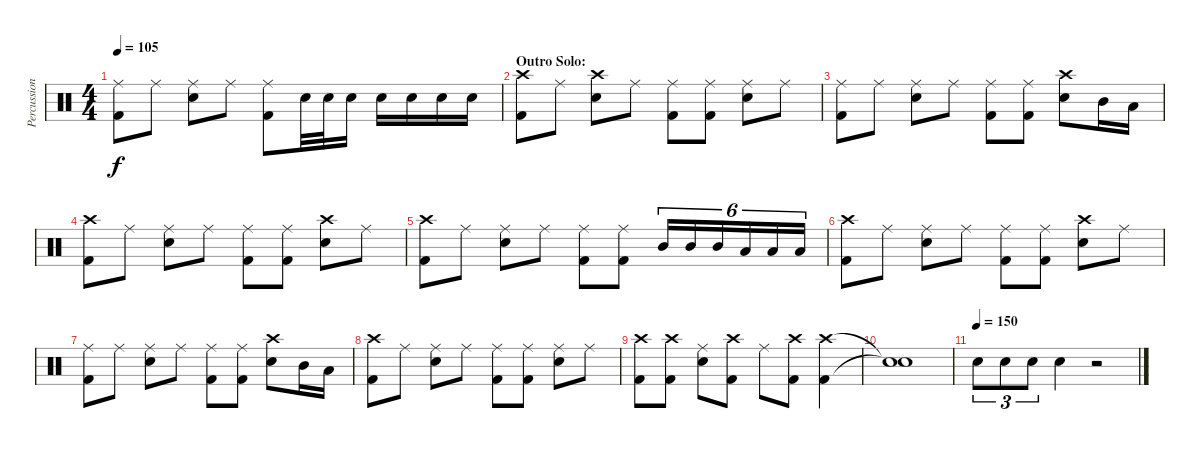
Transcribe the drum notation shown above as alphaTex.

\track ("Percussion" "Percussion") {instrument percussion}
\staff {score}
\articulation defaults
\ts (4 4)
\tempo 105
\clef neutral
\ks c
("Ride (middle)" "Kick (hit) 2").8{dy f} "Ride (middle)".8 ("Ride (middle)" "Electric Snare (hit)").8 "Ride (middle)".8 ("Ride (middle)" "Kick (hit) 2").8 "Electric Snare (hit)".32 "Electric Snare (hit)".32 "Electric Snare (hit)".16 "Electric Snare (hit)".16 "Electric Snare (hit)".16 "Electric Snare (hit)".16 "Electric Snare (hit)".16 |
\section ("" "Outro Solo:")
("Crash high (hit)" "Kick (hit) 2").8 "Ride (middle)".8 ("Crash high (hit)" "Electric Snare (hit)").8 "Ride (middle)".8 ("Ride (middle)" "Kick (hit) 2").8 ("Ride (middle)" "Kick (hit) 2").8 ("Ride (middle)" "Electric Snare (hit)").8 "Ride (middle)".8 |
("Ride (middle)" "Kick (hit) 2").8 "Ride (middle)".8 ("Ride (middle)" "Electric Snare (hit)").8 "Ride (middle)".8 ("Ride (middle)" "Kick (hit) 2").8 ("Ride (middle)" "Kick (hit) 2").8 ("Crash high (hit)" "Electric Snare (hit)").8 "Mid Tom (hit)".16 "Low Tom (hit)".16 |
("Crash high (hit)" "Kick (hit) 2").8 "Ride (middle)".8 ("Ride (middle)" "Electric Snare (hit)").8 "Ride (middle)".8 ("Ride (middle)" "Kick (hit) 2").8 ("Ride (middle)" "Kick (hit) 2").8 ("Crash high (hit)" "Electric Snare (hit)").8 "Ride (middle)".8 |
("Crash high (hit)" "Kick (hit) 2").8 "Ride (middle)".8 ("Ride (middle)" "Electric Snare (hit)").8 "Ride (middle)".8 ("Ride (middle)" "Kick (hit) 2").8 ("Ride (middle)" "Kick (hit) 2").8 "Mid Tom (hit)".16{tu (6 4)} "Mid Tom (hit)".16{tu (6 4)} "Mid Tom (hit)".16{tu (6 4)} "Low Tom (hit)".16{tu (6 4)} "Low Tom (hit)".16{tu (6 4)} "Low Tom (hit)".16{tu (6 4)} |
("Crash high (hit)" "Kick (hit) 2").8 "Ride (middle)".8 ("Ride (middle)" "Electric Snare (hit)").8 "Ride (middle)".8 ("Ride (middle)" "Kick (hit) 2").8 ("Ride (middle)" "Kick (hit) 2").8 ("Crash high (hit)" "Electric Snare (hit)").8 "Ride (middle)".8 |
("Ride (middle)" "Kick (hit) 2").8 "Ride (middle)".8 ("Ride (middle)" "Electric Snare (hit)").8 "Ride (middle)".8 ("Ride (middle)" "Kick (hit) 2").8 ("Ride (middle)" "Kick (hit) 2").8 ("Crash high (hit)" "Electric Snare (hit)").8 "Mid Tom (hit)".16 "Low Tom (hit)".16 |
("Crash high (hit)" "Kick (hit) 2").8 "Ride (middle)".8 ("Ride (middle)" "Electric Snare (hit)").8 "Ride (middle)".8 ("Ride (middle)" "Kick (hit) 2").8 ("Ride (middle)" "Kick (hit) 2").8 ("Ride (middle)" "Electric Snare (hit)").8 "Ride (middle)".8 |
("Crash high (hit)" "Kick (hit) 2").8 ("Crash high (hit)" "Kick (hit) 2").8 ("Ride (middle)" "Electric Snare (hit)").8 ("Crash high (hit)" "Kick (hit) 2").8 "Ride (middle)".8 ("Crash high (hit)" "Kick (hit) 2").8 ("Crash high (hit)" "Kick (hit) 2").4 |
("Snare (hit)"{t} "Snare (hit)"{t}).1 |
\tempo (150)
"Electric Snare (hit)".8{tu (3 2)} "Electric Snare (hit)".8{tu (3 2)} "Electric Snare (hit)".8{tu (3 2)} "Electric Snare (hit)".4 r.2
